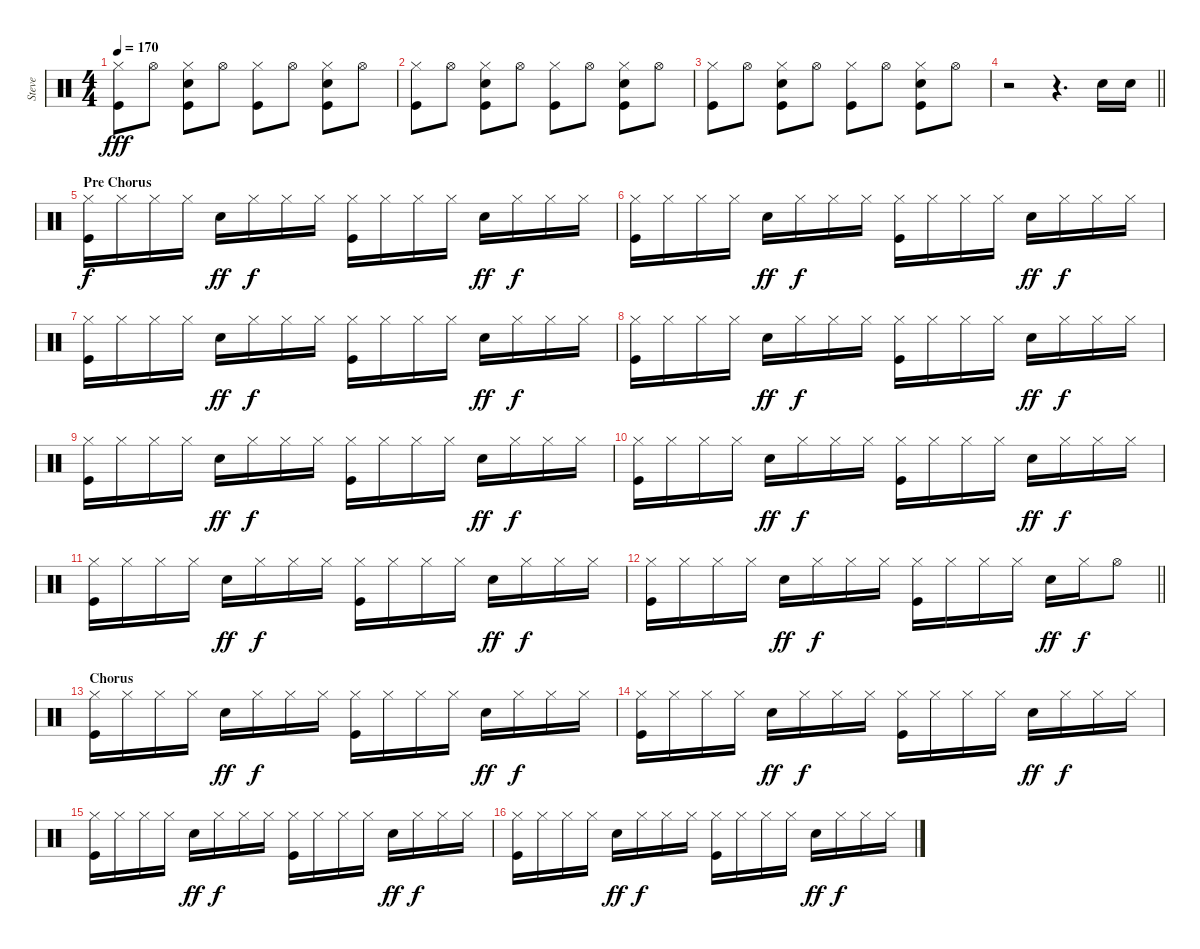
\track ("Steve" "Steve") {instrument percussion}
\staff {score}
\articulation defaults
\ts (4 4)
\tempo 170
\clef neutral
\ks c
("Hi-Hat (closed)" "Kick (hit)").8{dy fff} "Hi-Hat (open)".8 ("Electric Snare (hit)" "Hi-Hat (closed)" "Kick (hit)").8 "Hi-Hat (open)".8 ("Hi-Hat (closed)" "Kick (hit)").8 "Hi-Hat (open)".8 ("Electric Snare (hit)" "Hi-Hat (closed)" "Kick (hit)").8 "Hi-Hat (open)".8 |
("Hi-Hat (closed)" "Kick (hit)").8 "Hi-Hat (open)".8 ("Electric Snare (hit)" "Hi-Hat (closed)" "Kick (hit)").8 "Hi-Hat (open)".8 ("Hi-Hat (closed)" "Kick (hit)").8 "Hi-Hat (open)".8 ("Electric Snare (hit)" "Hi-Hat (closed)" "Kick (hit)").8 "Hi-Hat (open)".8 |
("Hi-Hat (closed)" "Kick (hit)").8 "Hi-Hat (open)".8 ("Electric Snare (hit)" "Hi-Hat (closed)" "Kick (hit)").8 "Hi-Hat (open)".8 ("Hi-Hat (closed)" "Kick (hit)").8 "Hi-Hat (open)".8 ("Electric Snare (hit)" "Hi-Hat (closed)" "Kick (hit)").8 "Hi-Hat (open)".8 |
\barLineRight lightlight
r.2 r.4{d} "Electric Snare (hit)".16 "Electric Snare (hit)".16 |
\section ("" "Pre Chorus")
("Hi-Hat (closed)" "Kick (hit)").16{dy f} "Hi-Hat (closed)".16 "Hi-Hat (closed)".16 "Hi-Hat (closed)".16 "Electric Snare (hit)".16{dy ff} "Hi-Hat (closed)".16{dy f} "Hi-Hat (closed)".16 "Hi-Hat (closed)".16 ("Hi-Hat (closed)" "Kick (hit)").16 "Hi-Hat (closed)".16 "Hi-Hat (closed)".16 "Hi-Hat (closed)".16 "Electric Snare (hit)".16{dy ff} "Hi-Hat (closed)".16{dy f} "Hi-Hat (closed)".16 "Hi-Hat (closed)".16 |
("Hi-Hat (closed)" "Kick (hit)").16 "Hi-Hat (closed)".16 "Hi-Hat (closed)".16 "Hi-Hat (closed)".16 "Electric Snare (hit)".16{dy ff} "Hi-Hat (closed)".16{dy f} "Hi-Hat (closed)".16 "Hi-Hat (closed)".16 ("Hi-Hat (closed)" "Kick (hit)").16 "Hi-Hat (closed)".16 "Hi-Hat (closed)".16 "Hi-Hat (closed)".16 "Electric Snare (hit)".16{dy ff} "Hi-Hat (closed)".16{dy f} "Hi-Hat (closed)".16 "Hi-Hat (closed)".16 |
("Hi-Hat (closed)" "Kick (hit)").16 "Hi-Hat (closed)".16 "Hi-Hat (closed)".16 "Hi-Hat (closed)".16 "Electric Snare (hit)".16{dy ff} "Hi-Hat (closed)".16{dy f} "Hi-Hat (closed)".16 "Hi-Hat (closed)".16 ("Hi-Hat (closed)" "Kick (hit)").16 "Hi-Hat (closed)".16 "Hi-Hat (closed)".16 "Hi-Hat (closed)".16 "Electric Snare (hit)".16{dy ff} "Hi-Hat (closed)".16{dy f} "Hi-Hat (closed)".16 "Hi-Hat (closed)".16 |
("Hi-Hat (closed)" "Kick (hit)").16 "Hi-Hat (closed)".16 "Hi-Hat (closed)".16 "Hi-Hat (closed)".16 "Electric Snare (hit)".16{dy ff} "Hi-Hat (closed)".16{dy f} "Hi-Hat (closed)".16 "Hi-Hat (closed)".16 ("Hi-Hat (closed)" "Kick (hit)").16 "Hi-Hat (closed)".16 "Hi-Hat (closed)".16 "Hi-Hat (closed)".16 "Electric Snare (hit)".16{dy ff} "Hi-Hat (closed)".16{dy f} "Hi-Hat (closed)".16 "Hi-Hat (closed)".16 |
("Hi-Hat (closed)" "Kick (hit)").16 "Hi-Hat (closed)".16 "Hi-Hat (closed)".16 "Hi-Hat (closed)".16 "Electric Snare (hit)".16{dy ff} "Hi-Hat (closed)".16{dy f} "Hi-Hat (closed)".16 "Hi-Hat (closed)".16 ("Hi-Hat (closed)" "Kick (hit)").16 "Hi-Hat (closed)".16 "Hi-Hat (closed)".16 "Hi-Hat (closed)".16 "Electric Snare (hit)".16{dy ff} "Hi-Hat (closed)".16{dy f} "Hi-Hat (closed)".16 "Hi-Hat (closed)".16 |
("Hi-Hat (closed)" "Kick (hit)").16 "Hi-Hat (closed)".16 "Hi-Hat (closed)".16 "Hi-Hat (closed)".16 "Electric Snare (hit)".16{dy ff} "Hi-Hat (closed)".16{dy f} "Hi-Hat (closed)".16 "Hi-Hat (closed)".16 ("Hi-Hat (closed)" "Kick (hit)").16 "Hi-Hat (closed)".16 "Hi-Hat (closed)".16 "Hi-Hat (closed)".16 "Electric Snare (hit)".16{dy ff} "Hi-Hat (closed)".16{dy f} "Hi-Hat (closed)".16 "Hi-Hat (closed)".16 |
("Hi-Hat (closed)" "Kick (hit)").16 "Hi-Hat (closed)".16 "Hi-Hat (closed)".16 "Hi-Hat (closed)".16 "Electric Snare (hit)".16{dy ff} "Hi-Hat (closed)".16{dy f} "Hi-Hat (closed)".16 "Hi-Hat (closed)".16 ("Hi-Hat (closed)" "Kick (hit)").16 "Hi-Hat (closed)".16 "Hi-Hat (closed)".16 "Hi-Hat (closed)".16 "Electric Snare (hit)".16{dy ff} "Hi-Hat (closed)".16{dy f} "Hi-Hat (closed)".16 "Hi-Hat (closed)".16 |
\barLineRight lightlight
("Hi-Hat (closed)" "Kick (hit)").16 "Hi-Hat (closed)".16 "Hi-Hat (closed)".16 "Hi-Hat (closed)".16 "Electric Snare (hit)".16{dy ff} "Hi-Hat (closed)".16{dy f} "Hi-Hat (closed)".16 "Hi-Hat (closed)".16 ("Hi-Hat (closed)" "Kick (hit)").16 "Hi-Hat (closed)".16 "Hi-Hat (closed)".16 "Hi-Hat (closed)".16 "Electric Snare (hit)".16{dy ff} "Hi-Hat (closed)".16{dy f} "Hi-Hat (open)".8 |
\section ("" "Chorus")
("Hi-Hat (closed)" "Kick (hit)").16 "Hi-Hat (closed)".16 "Hi-Hat (closed)".16 "Hi-Hat (closed)".16 "Electric Snare (hit)".16{dy ff} "Hi-Hat (closed)".16{dy f} "Hi-Hat (closed)".16 "Hi-Hat (closed)".16 ("Hi-Hat (closed)" "Kick (hit)").16 "Hi-Hat (closed)".16 "Hi-Hat (closed)".16 "Hi-Hat (closed)".16 "Electric Snare (hit)".16{dy ff} "Hi-Hat (closed)".16{dy f} "Hi-Hat (closed)".16 "Hi-Hat (closed)".16 |
("Hi-Hat (closed)" "Kick (hit)").16 "Hi-Hat (closed)".16 "Hi-Hat (closed)".16 "Hi-Hat (closed)".16 "Electric Snare (hit)".16{dy ff} "Hi-Hat (closed)".16{dy f} "Hi-Hat (closed)".16 "Hi-Hat (closed)".16 ("Hi-Hat (closed)" "Kick (hit)").16 "Hi-Hat (closed)".16 "Hi-Hat (closed)".16 "Hi-Hat (closed)".16 "Electric Snare (hit)".16{dy ff} "Hi-Hat (closed)".16{dy f} "Hi-Hat (closed)".16 "Hi-Hat (closed)".16 |
("Hi-Hat (closed)" "Kick (hit)").16 "Hi-Hat (closed)".16 "Hi-Hat (closed)".16 "Hi-Hat (closed)".16 "Electric Snare (hit)".16{dy ff} "Hi-Hat (closed)".16{dy f} "Hi-Hat (closed)".16 "Hi-Hat (closed)".16 ("Hi-Hat (closed)" "Kick (hit)").16 "Hi-Hat (closed)".16 "Hi-Hat (closed)".16 "Hi-Hat (closed)".16 "Electric Snare (hit)".16{dy ff} "Hi-Hat (closed)".16{dy f} "Hi-Hat (closed)".16 "Hi-Hat (closed)".16 |
("Hi-Hat (closed)" "Kick (hit)").16 "Hi-Hat (closed)".16 "Hi-Hat (closed)".16 "Hi-Hat (closed)".16 "Electric Snare (hit)".16{dy ff} "Hi-Hat (closed)".16{dy f} "Hi-Hat (closed)".16 "Hi-Hat (closed)".16 ("Hi-Hat (closed)" "Kick (hit)").16 "Hi-Hat (closed)".16 "Hi-Hat (closed)".16 "Hi-Hat (closed)".16 "Electric Snare (hit)".16{dy ff} "Hi-Hat (closed)".16{dy f} "Hi-Hat (closed)".16 "Hi-Hat (closed)".16
